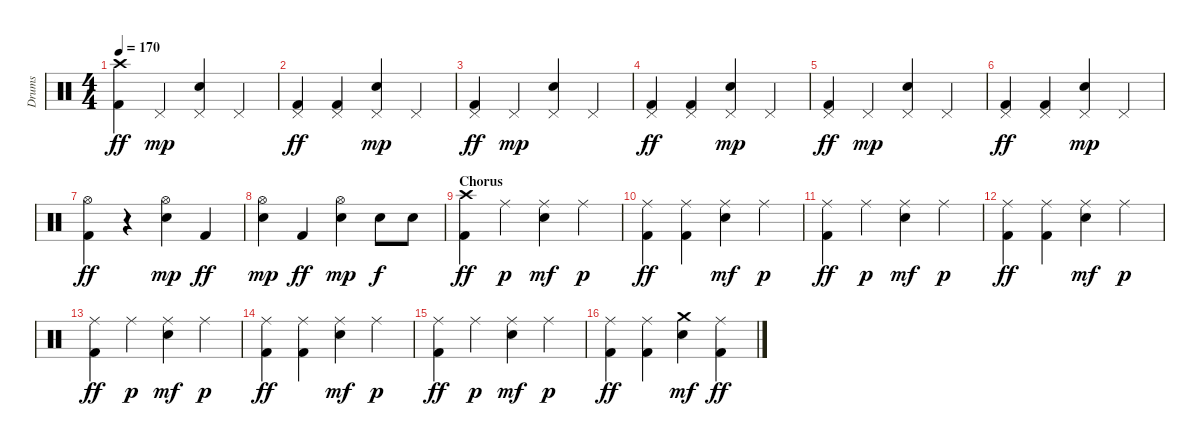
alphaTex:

\track ("Drums" "Drums") {instrument percussion}
\staff {score}
\articulation defaults
\ts (4 4)
\tempo 170
\clef neutral
\ks c
("Crash high (hit)" "Kick (hit) 2").4{dy ff} "Pedal Hi-Hat (hit)".4{dy mp} ("Pedal Hi-Hat (hit)" "Electric Snare (hit)").4 "Pedal Hi-Hat (hit)".4 |
("Pedal Hi-Hat (hit)" "Kick (hit) 2").4{dy ff} ("Pedal Hi-Hat (hit)" "Kick (hit) 2").4 ("Pedal Hi-Hat (hit)" "Electric Snare (hit)").4{dy mp} "Pedal Hi-Hat (hit)".4 |
("Pedal Hi-Hat (hit)" "Kick (hit) 2").4{dy ff} "Pedal Hi-Hat (hit)".4{dy mp} ("Pedal Hi-Hat (hit)" "Electric Snare (hit)").4 "Pedal Hi-Hat (hit)".4 |
("Pedal Hi-Hat (hit)" "Kick (hit) 2").4{dy ff} ("Pedal Hi-Hat (hit)" "Kick (hit) 2").4 ("Pedal Hi-Hat (hit)" "Electric Snare (hit)").4{dy mp} "Pedal Hi-Hat (hit)".4 |
("Pedal Hi-Hat (hit)" "Kick (hit) 2").4{dy ff} "Pedal Hi-Hat (hit)".4{dy mp} ("Pedal Hi-Hat (hit)" "Electric Snare (hit)").4 "Pedal Hi-Hat (hit)".4 |
("Pedal Hi-Hat (hit)" "Kick (hit) 2").4{dy ff} ("Pedal Hi-Hat (hit)" "Kick (hit) 2").4 ("Pedal Hi-Hat (hit)" "Electric Snare (hit)").4{dy mp} "Pedal Hi-Hat (hit)".4 |
("Hi-Hat (open)" "Kick (hit) 2").4{dy ff} r.4 ("Hi-Hat (open)" "Electric Snare (hit)").4{dy mp} "Kick (hit) 2".4{dy ff} |
("Hi-Hat (open)" "Electric Snare (hit)").4{dy mp} "Kick (hit) 2".4{dy ff} ("Hi-Hat (open)" "Electric Snare (hit)").4{dy mp} "Electric Snare (hit)".8{dy f} "Electric Snare (hit)".8 |
\section ("" "Chorus")
("Crash high (hit)" "Kick (hit) 2").4{dy ff} "Ride (middle)".4{dy p} ("Ride (middle)" "Electric Snare (hit)").4{dy mf} "Ride (middle)".4{dy p} |
("Ride (middle)" "Kick (hit) 2").4{dy ff} ("Ride (middle)" "Kick (hit) 2").4 ("Ride (middle)" "Electric Snare (hit)").4{dy mf} "Ride (middle)".4{dy p} |
("Ride (middle)" "Kick (hit) 2").4{dy ff} "Ride (middle)".4{dy p} ("Ride (middle)" "Electric Snare (hit)").4{dy mf} "Ride (middle)".4{dy p} |
("Ride (middle)" "Kick (hit) 2").4{dy ff} ("Ride (middle)" "Kick (hit) 2").4 ("Ride (middle)" "Electric Snare (hit)").4{dy mf} "Ride (middle)".4{dy p} |
("Ride (middle)" "Kick (hit) 2").4{dy ff} "Ride (middle)".4{dy p} ("Ride (middle)" "Electric Snare (hit)").4{dy mf} "Ride (middle)".4{dy p} |
("Ride (middle)" "Kick (hit) 2").4{dy ff} ("Ride (middle)" "Kick (hit) 2").4 ("Ride (middle)" "Electric Snare (hit)").4{dy mf} "Ride (middle)".4{dy p} |
("Ride (middle)" "Kick (hit) 2").4{dy ff} "Ride (middle)".4{dy p} ("Ride (middle)" "Electric Snare (hit)").4{dy mf} "Ride (middle)".4{dy p} |
("Ride (middle)" "Kick (hit) 2").4{dy ff} ("Ride (middle)" "Kick (hit) 2").4 ("Crash medium (hit)" "Electric Snare (hit)").4{dy mf} ("Ride (middle)" "Kick (hit) 2").4{dy ff}
